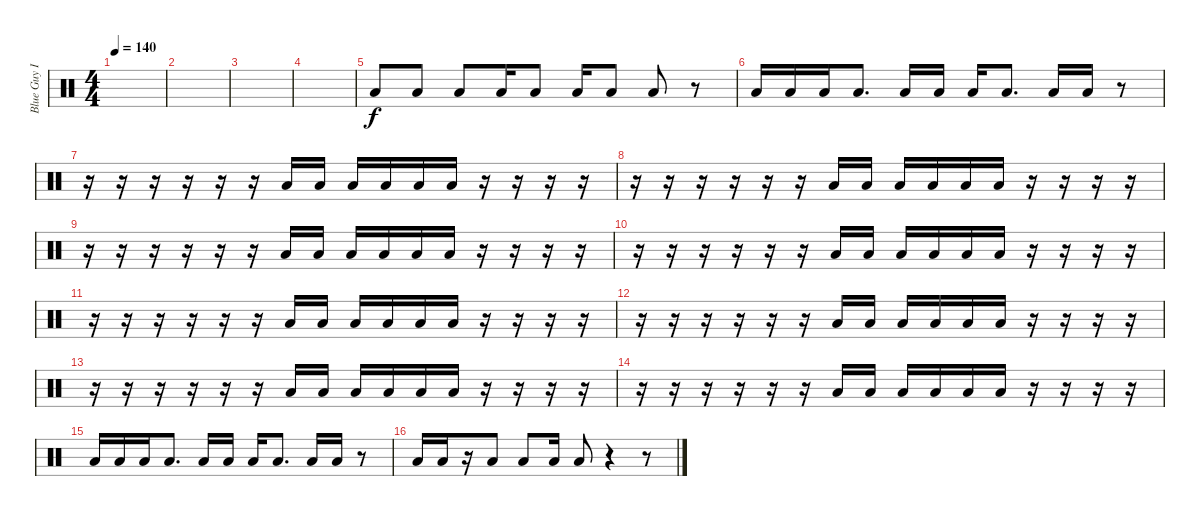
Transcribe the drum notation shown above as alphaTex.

\track ("Blue Guy II" "Blue Guy I") {instrument percussion}
\staff {score}
\articulation defaults
\ts (4 4)
\tempo 140
\clef neutral
\ks c
|
|
|
|
"Low Floor Tom (hit)".8 "Low Floor Tom (hit)".8 "Low Floor Tom (hit)".8 "Low Floor Tom (hit)".16 "Low Floor Tom (hit)".8 "Low Floor Tom (hit)".16 "Low Floor Tom (hit)".8 "Low Floor Tom (hit)".8 r.8 |
"Low Floor Tom (hit)".16 "Low Floor Tom (hit)".16 "Low Floor Tom (hit)".16 "Low Floor Tom (hit)".8{d} "Low Floor Tom (hit)".16 "Low Floor Tom (hit)".16 "Low Floor Tom (hit)".16 "Low Floor Tom (hit)".8{d} "Low Floor Tom (hit)".16 "Low Floor Tom (hit)".16 r.8 |
r.16 r.16 r.16 r.16 r.16 r.16 "Low Floor Tom (hit)".16 "Low Floor Tom (hit)".16 "Low Floor Tom (hit)".16 "Low Floor Tom (hit)".16 "Low Floor Tom (hit)".16 "Low Floor Tom (hit)".16 r.16 r.16 r.16 r.16 |
r.16 r.16 r.16 r.16 r.16 r.16 "Low Floor Tom (hit)".16 "Low Floor Tom (hit)".16 "Low Floor Tom (hit)".16 "Low Floor Tom (hit)".16 "Low Floor Tom (hit)".16 "Low Floor Tom (hit)".16 r.16 r.16 r.16 r.16 |
r.16 r.16 r.16 r.16 r.16 r.16 "Low Floor Tom (hit)".16 "Low Floor Tom (hit)".16 "Low Floor Tom (hit)".16 "Low Floor Tom (hit)".16 "Low Floor Tom (hit)".16 "Low Floor Tom (hit)".16 r.16 r.16 r.16 r.16 |
r.16 r.16 r.16 r.16 r.16 r.16 "Low Floor Tom (hit)".16 "Low Floor Tom (hit)".16 "Low Floor Tom (hit)".16 "Low Floor Tom (hit)".16 "Low Floor Tom (hit)".16 "Low Floor Tom (hit)".16 r.16 r.16 r.16 r.16 |
r.16 r.16 r.16 r.16 r.16 r.16 "Low Floor Tom (hit)".16 "Low Floor Tom (hit)".16 "Low Floor Tom (hit)".16 "Low Floor Tom (hit)".16 "Low Floor Tom (hit)".16 "Low Floor Tom (hit)".16 r.16 r.16 r.16 r.16 |
r.16 r.16 r.16 r.16 r.16 r.16 "Low Floor Tom (hit)".16 "Low Floor Tom (hit)".16 "Low Floor Tom (hit)".16 "Low Floor Tom (hit)".16 "Low Floor Tom (hit)".16 "Low Floor Tom (hit)".16 r.16 r.16 r.16 r.16 |
r.16 r.16 r.16 r.16 r.16 r.16 "Low Floor Tom (hit)".16 "Low Floor Tom (hit)".16 "Low Floor Tom (hit)".16 "Low Floor Tom (hit)".16 "Low Floor Tom (hit)".16 "Low Floor Tom (hit)".16 r.16 r.16 r.16 r.16 |
r.16 r.16 r.16 r.16 r.16 r.16 "Low Floor Tom (hit)".16 "Low Floor Tom (hit)".16 "Low Floor Tom (hit)".16 "Low Floor Tom (hit)".16 "Low Floor Tom (hit)".16 "Low Floor Tom (hit)".16 r.16 r.16 r.16 r.16 |
"Low Floor Tom (hit)".16 "Low Floor Tom (hit)".16 "Low Floor Tom (hit)".16 "Low Floor Tom (hit)".8{d} "Low Floor Tom (hit)".16 "Low Floor Tom (hit)".16 "Low Floor Tom (hit)".16 "Low Floor Tom (hit)".8{d} "Low Floor Tom (hit)".16 "Low Floor Tom (hit)".16 r.8 |
"Low Floor Tom (hit)".16 "Low Floor Tom (hit)".16 r.16 "Low Floor Tom (hit)".8 "Low Floor Tom (hit)".8 "Low Floor Tom (hit)".16 "Low Floor Tom (hit)".8 r.4 r.8
